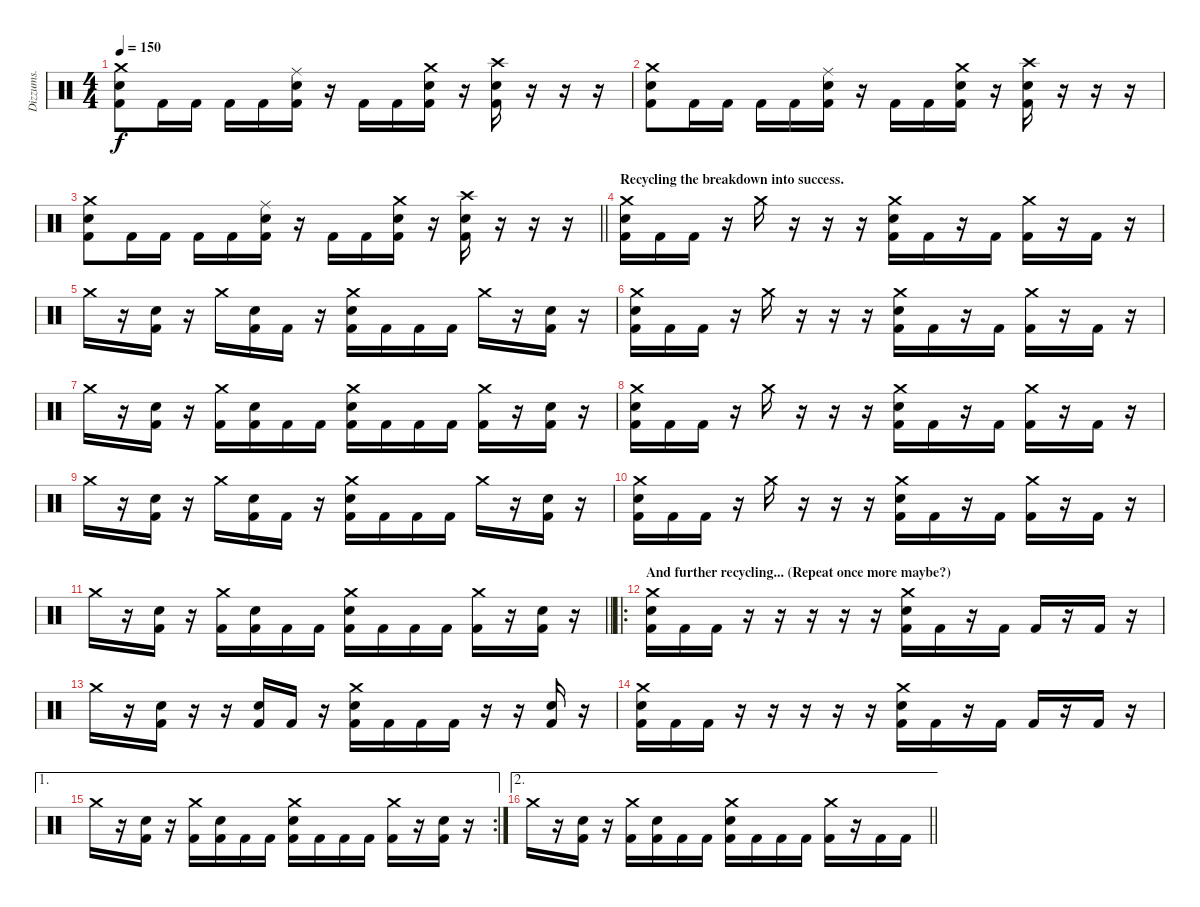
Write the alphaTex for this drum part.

\track ("Dizzums." "Dizzums.") {instrument percussion}
\staff {score}
\articulation defaults
\ts (4 4)
\tempo 150
\clef neutral
\ks c
("Crash medium (hit)" "Electric Snare (hit)" "Kick (hit) 2").8{dy f} "Kick (hit) 2".16 "Kick (hit) 2".16 "Kick (hit) 2".16 "Kick (hit) 2".16 ("Ride (middle)" "Electric Snare (hit)" "Kick (hit) 2").16 r.16 "Kick (hit) 2".16 "Kick (hit) 2".16 ("Crash medium (hit)" "Electric Snare (hit)" "Kick (hit) 2").16 r.16 ("Crash high (hit)" "Electric Snare (hit)" "Kick (hit) 2").16 r.16 r.16 r.16 |
("Crash medium (hit)" "Electric Snare (hit)" "Kick (hit) 2").8 "Kick (hit) 2".16 "Kick (hit) 2".16 "Kick (hit) 2".16 "Kick (hit) 2".16 ("Ride (middle)" "Electric Snare (hit)" "Kick (hit) 2").16 r.16 "Kick (hit) 2".16 "Kick (hit) 2".16 ("Crash medium (hit)" "Electric Snare (hit)" "Kick (hit) 2").16 r.16 ("Crash high (hit)" "Electric Snare (hit)" "Kick (hit) 2").16 r.16 r.16 r.16 |
\barLineRight lightlight
("Crash medium (hit)" "Electric Snare (hit)" "Kick (hit) 2").8 "Kick (hit) 2".16 "Kick (hit) 2".16 "Kick (hit) 2".16 "Kick (hit) 2".16 ("Ride (middle)" "Electric Snare (hit)" "Kick (hit) 2").16 r.16 "Kick (hit) 2".16 "Kick (hit) 2".16 ("Crash medium (hit)" "Electric Snare (hit)" "Kick (hit) 2").16 r.16 ("Crash high (hit)" "Electric Snare (hit)" "Kick (hit) 2").16 r.16 r.16 r.16 |
\section ("" "Recycling the breakdown into success.")
("Crash medium (hit)" "Electric Snare (hit)" "Kick (hit) 2").16 "Kick (hit) 2".16 "Kick (hit) 2".16 r.16 "Crash medium (hit)".16 r.16 r.16 r.16 ("Crash medium (hit)" "Electric Snare (hit)" "Kick (hit) 2").16 "Kick (hit) 2".16 r.16 "Kick (hit) 2".16 ("Crash medium (hit)" "Kick (hit) 2").16 r.16 "Kick (hit) 2".16 r.16 |
"Crash medium (hit)".16 r.16 ("Electric Snare (hit)" "Kick (hit) 2").16 r.16 "Crash medium (hit)".16 ("Electric Snare (hit)" "Kick (hit) 2").16 "Kick (hit) 2".16 r.16 ("Crash medium (hit)" "Electric Snare (hit)" "Kick (hit) 2").16 "Kick (hit) 2".16 "Kick (hit) 2".16 "Kick (hit) 2".16 "Crash medium (hit)".16 r.16 ("Electric Snare (hit)" "Kick (hit) 2").16 r.16 |
("Crash medium (hit)" "Electric Snare (hit)" "Kick (hit) 2").16 "Kick (hit) 2".16 "Kick (hit) 2".16 r.16 "Crash medium (hit)".16 r.16 r.16 r.16 ("Crash medium (hit)" "Electric Snare (hit)" "Kick (hit) 2").16 "Kick (hit) 2".16 r.16 "Kick (hit) 2".16 ("Crash medium (hit)" "Kick (hit) 2").16 r.16 "Kick (hit) 2".16 r.16 |
"Crash medium (hit)".16 r.16 ("Electric Snare (hit)" "Kick (hit) 2").16 r.16 ("Crash medium (hit)" "Kick (hit) 2").16 ("Electric Snare (hit)" "Kick (hit) 2").16 "Kick (hit) 2".16 "Kick (hit) 2".16 ("Crash medium (hit)" "Electric Snare (hit)" "Kick (hit) 2").16 "Kick (hit) 2".16 "Kick (hit) 2".16 "Kick (hit) 2".16 ("Crash medium (hit)" "Kick (hit) 2").16 r.16 ("Electric Snare (hit)" "Kick (hit) 2").16 r.16 |
("Crash medium (hit)" "Electric Snare (hit)" "Kick (hit) 2").16 "Kick (hit) 2".16 "Kick (hit) 2".16 r.16 "Crash medium (hit)".16 r.16 r.16 r.16 ("Crash medium (hit)" "Electric Snare (hit)" "Kick (hit) 2").16 "Kick (hit) 2".16 r.16 "Kick (hit) 2".16 ("Crash medium (hit)" "Kick (hit) 2").16 r.16 "Kick (hit) 2".16 r.16 |
"Crash medium (hit)".16 r.16 ("Electric Snare (hit)" "Kick (hit) 2").16 r.16 "Crash medium (hit)".16 ("Electric Snare (hit)" "Kick (hit) 2").16 "Kick (hit) 2".16 r.16 ("Crash medium (hit)" "Electric Snare (hit)" "Kick (hit) 2").16 "Kick (hit) 2".16 "Kick (hit) 2".16 "Kick (hit) 2".16 "Crash medium (hit)".16 r.16 ("Electric Snare (hit)" "Kick (hit) 2").16 r.16 |
("Crash medium (hit)" "Electric Snare (hit)" "Kick (hit) 2").16 "Kick (hit) 2".16 "Kick (hit) 2".16 r.16 "Crash medium (hit)".16 r.16 r.16 r.16 ("Crash medium (hit)" "Electric Snare (hit)" "Kick (hit) 2").16 "Kick (hit) 2".16 r.16 "Kick (hit) 2".16 ("Crash medium (hit)" "Kick (hit) 2").16 r.16 "Kick (hit) 2".16 r.16 |
\barLineRight lightlight "Crash medium (hit)".16
r.16 ("Electric Snare (hit)" "Kick (hit) 2").16 r.16 ("Crash medium (hit)" "Kick (hit) 2").16 ("Electric Snare (hit)" "Kick (hit) 2").16 "Kick (hit) 2".16 "Kick (hit) 2".16 ("Crash medium (hit)" "Electric Snare (hit)" "Kick (hit) 2").16 "Kick (hit) 2".16 "Kick (hit) 2".16 "Kick (hit) 2".16 ("Crash medium (hit)" "Kick (hit) 2").16 r.16 ("Electric Snare (hit)" "Kick (hit) 2").16 r.16 |
\ro
\section ("" "And further recycling... (Repeat once more maybe?)")
("Crash medium (hit)" "Electric Snare (hit)" "Kick (hit) 2").16 "Kick (hit) 2".16 "Kick (hit) 2".16 r.16 r.16 r.16 r.16 r.16 ("Crash medium (hit)" "Electric Snare (hit)" "Kick (hit) 2").16 "Kick (hit) 2".16 r.16 "Kick (hit) 2".16 "Kick (hit) 2".16 r.16 "Kick (hit) 2".16 r.16 |
"Crash medium (hit)".16 r.16 ("Electric Snare (hit)" "Kick (hit) 2").16 r.16 r.16 ("Electric Snare (hit)" "Kick (hit) 2").16 "Kick (hit) 2".16 r.16 ("Crash medium (hit)" "Electric Snare (hit)" "Kick (hit) 2").16 "Kick (hit) 2".16 "Kick (hit) 2".16 "Kick (hit) 2".16 r.16 r.16 ("Electric Snare (hit)" "Kick (hit) 2").16 r.16 |
("Crash medium (hit)" "Electric Snare (hit)" "Kick (hit) 2").16 "Kick (hit) 2".16 "Kick (hit) 2".16 r.16 r.16 r.16 r.16 r.16 ("Crash medium (hit)" "Electric Snare (hit)" "Kick (hit) 2").16 "Kick (hit) 2".16 r.16 "Kick (hit) 2".16 "Kick (hit) 2".16 r.16 "Kick (hit) 2".16 r.16 |
\ae 1
\rc 2 "Crash medium (hit)".16
r.16 ("Electric Snare (hit)" "Kick (hit) 2").16 r.16 ("Crash medium (hit)" "Kick (hit) 2").16 ("Electric Snare (hit)" "Kick (hit) 2").16 "Kick (hit) 2".16 "Kick (hit) 2".16 ("Crash medium (hit)" "Electric Snare (hit)" "Kick (hit) 2").16 "Kick (hit) 2".16 "Kick (hit) 2".16 "Kick (hit) 2".16 ("Crash medium (hit)" "Kick (hit) 2").16 r.16 ("Electric Snare (hit)" "Kick (hit) 2").16 r.16 |
\ae 2
\barLineRight lightlight "Crash medium (hit)".16
r.16 ("Electric Snare (hit)" "Kick (hit) 2").16 r.16 ("Crash medium (hit)" "Kick (hit) 2").16 ("Electric Snare (hit)" "Kick (hit) 2").16 "Kick (hit) 2".16 "Kick (hit) 2".16 ("Crash medium (hit)" "Electric Snare (hit)" "Kick (hit) 2").16 "Kick (hit) 2".16 "Kick (hit) 2".16 "Kick (hit) 2".16 ("Crash medium (hit)" "Kick (hit) 2").16 r.16 "Kick (hit) 2".16 "Kick (hit) 2".16
